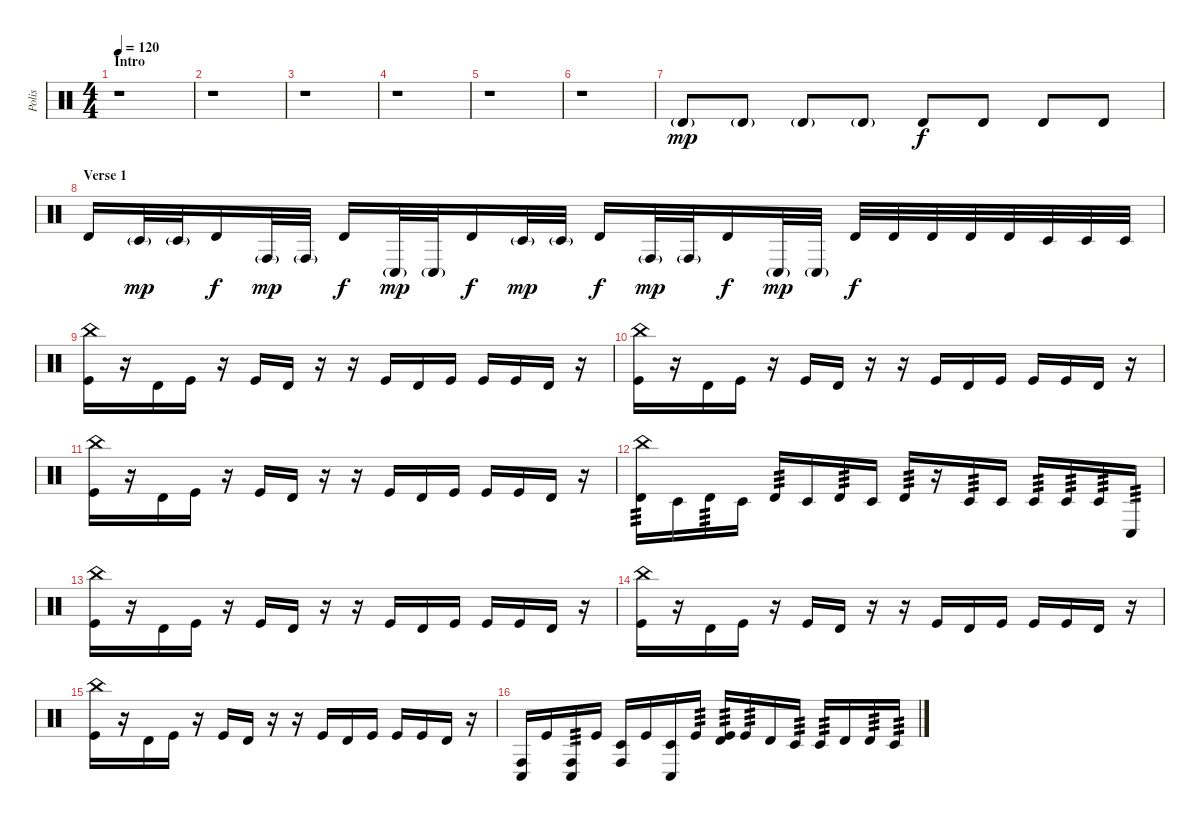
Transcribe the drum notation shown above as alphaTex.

\track ("Polis" "Polis") {instrument percussion}
\staff {score}
\articulation defaults
\ts (4 4)
\section ("" "Intro")
\tempo 120
\clef neutral
\ks c
r.1{dy mp} |
r.1 |
r.1 |
r.1 |
r.1 |
r.1 |
"Timbale high (hit)"{g}.8 "Timbale high (hit)"{g}.8 "Timbale high (hit)"{g}.8 "Timbale high (hit)"{g}.8 "Timbale high (hit)".8{dy f} "Timbale high (hit)".8 "Timbale high (hit)".8 "Timbale high (hit)".8 |
\section ("" "Verse 1")
"Timbale high (hit)".16 "Timbale low (hit)"{g}.32{dy mp} "Timbale low (hit)"{g}.32 "Timbale high (hit)".16{dy f} "Conga high (hit)"{g}.32{dy mp} "Conga high (hit)"{g}.32 "Timbale high (hit)".16{dy f} "Conga low (hit)"{g}.32{dy mp} "Conga low (hit)"{g}.32 "Timbale high (hit)".16{dy f} "Timbale low (hit)"{g}.32{dy mp} "Timbale low (hit)"{g}.32 "Timbale high (hit)".16{dy f} "Conga high (hit)"{g}.32{dy mp} "Conga high (hit)"{g}.32 "Timbale high (hit)".16{dy f} "Conga low (hit)"{g}.32{dy mp} "Conga low (hit)"{g}.32 "Timbale high (hit)".32{dy f} "Timbale high (hit)".32 "Timbale high (hit)".32 "Timbale high (hit)".32 "Timbale high (hit)".32 "Timbale low (hit)".32 "Timbale low (hit)".32 "Timbale low (hit)".32 |
("Kick (hit)" "China (hit)").16 r.16 "Timbale high (hit)".16 "Kick (hit)".16 r.16 "Kick (hit)".16 "Timbale high (hit)".16 r.16 r.16 "Kick (hit)".16 "Timbale high (hit)".16 "Kick (hit)".16 "Kick (hit)".16 "Kick (hit)".16 "Timbale high (hit)".16 r.16 |
("Kick (hit)" "China (hit)").16 r.16 "Timbale high (hit)".16 "Kick (hit)".16 r.16 "Kick (hit)".16 "Timbale high (hit)".16 r.16 r.16 "Kick (hit)".16 "Timbale high (hit)".16 "Kick (hit)".16 "Kick (hit)".16 "Kick (hit)".16 "Timbale high (hit)".16 r.16 |
("Kick (hit)" "China (hit)").16 r.16 "Timbale high (hit)".16 "Kick (hit)".16 r.16 "Kick (hit)".16 "Timbale high (hit)".16 r.16 r.16 "Kick (hit)".16 "Timbale high (hit)".16 "Kick (hit)".16 "Kick (hit)".16 "Kick (hit)".16 "Timbale high (hit)".16 r.16 |
("Timbale high (hit)" "China (hit)").16{tp 3} "Timbale low (hit)".16 "Timbale high (hit)".16{tp 3} "Timbale low (hit)".16 "Timbale high (hit)".16{tp 3} "Timbale low (hit)".16 "Timbale high (hit)".16{tp 3} "Timbale low (hit)".16 "Timbale high (hit)".16{tp 3} r.16 "Timbale low (hit)".16{tp 3} "Timbale low (hit)".16 "Timbale low (hit)".16{tp 3} "Timbale low (hit)".16{tp 3} "Timbale low (hit)".16{tp 3} "Conga low (hit)".16{tp 3} |
("Kick (hit)" "China (hit)").16 r.16 "Timbale high (hit)".16 "Kick (hit)".16 r.16 "Kick (hit)".16 "Timbale high (hit)".16 r.16 r.16 "Kick (hit)".16 "Timbale high (hit)".16 "Kick (hit)".16 "Kick (hit)".16 "Kick (hit)".16 "Timbale high (hit)".16 r.16 |
("Kick (hit)" "China (hit)").16 r.16 "Timbale high (hit)".16 "Kick (hit)".16 r.16 "Kick (hit)".16 "Timbale high (hit)".16 r.16 r.16 "Kick (hit)".16 "Timbale high (hit)".16 "Kick (hit)".16 "Kick (hit)".16 "Kick (hit)".16 "Timbale high (hit)".16 r.16 |
("Kick (hit)" "China (hit)").16 r.16 "Timbale high (hit)".16 "Kick (hit)".16 r.16 "Kick (hit)".16 "Timbale high (hit)".16 r.16 r.16 "Kick (hit)".16 "Timbale high (hit)".16 "Kick (hit)".16 "Kick (hit)".16 "Kick (hit)".16 "Timbale high (hit)".16 r.16 |
("Conga low (hit)" "Conga high (hit)").16 "Kick (hit)".16 ("Conga low (hit)" "Conga high (hit)").16{tp 3} "Kick (hit)".16 ("Timbale low (hit)" "Conga high (hit)").16 "Kick (hit)".16 ("Timbale low (hit)" "Conga low (hit)").16 "Kick (hit)".16{tp 3} ("Kick (hit)" "Timbale high (hit)").16{tp 3} "Kick (hit)".16{tp 3} "Timbale high (hit)".16 "Timbale low (hit)".16{tp 3} "Timbale low (hit)".16{tp 3} "Timbale high (hit)".16 "Timbale high (hit)".16{tp 3} "Timbale low (hit)".16{tp 3}
